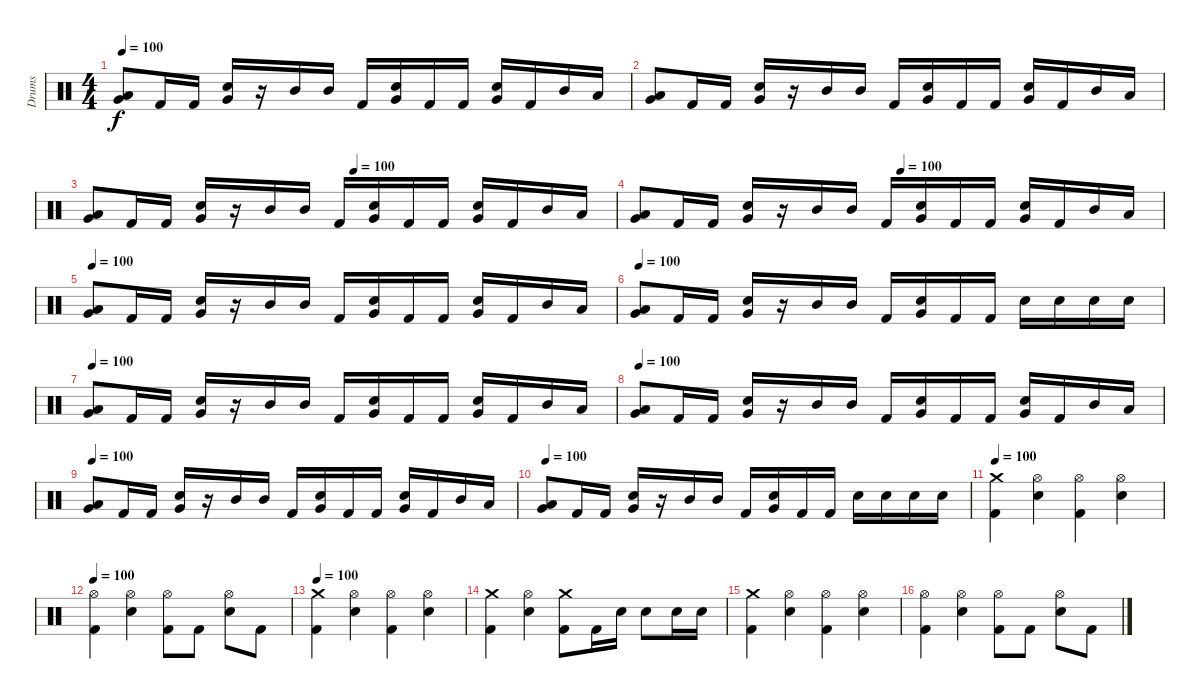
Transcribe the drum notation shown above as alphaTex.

\track ("Drums" "Drums") {instrument percussion}
\staff {score}
\articulation defaults
\ts (4 4)
\tempo 100
\clef neutral
\ks c
("Very Low Tom (hit)" "Low Tom (hit)").8{dy f} "Kick (hit) 2".16 "Kick (hit) 2".16 ("Very Low Tom (hit)" "Electric Snare (hit)").16 r.16 "Mid Tom (hit)".16 "Mid Tom (hit)".16 "Kick (hit) 2".16 ("Electric Snare (hit)" "Very Low Tom (hit)").16 "Kick (hit) 2".16 "Kick (hit) 2".16 ("Electric Snare (hit)" "Very Low Tom (hit)").16 "Kick (hit) 2".16 "Mid Tom (hit)".16 "Low Tom (hit)".16 |
("Very Low Tom (hit)" "Low Tom (hit)").8 "Kick (hit) 2".16 "Kick (hit) 2".16 ("Very Low Tom (hit)" "Electric Snare (hit)").16 r.16 "Mid Tom (hit)".16 "Mid Tom (hit)".16 "Kick (hit) 2".16 ("Electric Snare (hit)" "Very Low Tom (hit)").16 "Kick (hit) 2".16 "Kick (hit) 2".16 ("Electric Snare (hit)" "Very Low Tom (hit)").16 "Kick (hit) 2".16 "Mid Tom (hit)".16 "Low Tom (hit)".16 |
\tempo (100 0.5)
("Very Low Tom (hit)" "Low Tom (hit)").8 "Kick (hit) 2".16 "Kick (hit) 2".16 ("Very Low Tom (hit)" "Electric Snare (hit)").16 r.16 "Mid Tom (hit)".16 "Mid Tom (hit)".16 "Kick (hit) 2".16 ("Electric Snare (hit)" "Very Low Tom (hit)").16 "Kick (hit) 2".16 "Kick (hit) 2".16 ("Electric Snare (hit)" "Very Low Tom (hit)").16 "Kick (hit) 2".16 "Mid Tom (hit)".16 "Low Tom (hit)".16 |
\tempo (100 0.5)
("Very Low Tom (hit)" "Low Tom (hit)").8 "Kick (hit) 2".16 "Kick (hit) 2".16 ("Very Low Tom (hit)" "Electric Snare (hit)").16 r.16 "Mid Tom (hit)".16 "Mid Tom (hit)".16 "Kick (hit) 2".16 ("Electric Snare (hit)" "Very Low Tom (hit)").16 "Kick (hit) 2".16 "Kick (hit) 2".16 ("Electric Snare (hit)" "Very Low Tom (hit)").16 "Kick (hit) 2".16 "Mid Tom (hit)".16 "Low Tom (hit)".16 |
\tempo 100
("Very Low Tom (hit)" "Low Tom (hit)").8 "Kick (hit) 2".16 "Kick (hit) 2".16 ("Very Low Tom (hit)" "Electric Snare (hit)").16 r.16 "Mid Tom (hit)".16 "Mid Tom (hit)".16 "Kick (hit) 2".16 ("Electric Snare (hit)" "Very Low Tom (hit)").16 "Kick (hit) 2".16 "Kick (hit) 2".16 ("Electric Snare (hit)" "Very Low Tom (hit)").16 "Kick (hit) 2".16 "Mid Tom (hit)".16 "Low Tom (hit)".16 |
\tempo 100
("Very Low Tom (hit)" "Low Tom (hit)").8 "Kick (hit) 2".16 "Kick (hit) 2".16 ("Very Low Tom (hit)" "Electric Snare (hit)").16 r.16 "Mid Tom (hit)".16 "Mid Tom (hit)".16 "Kick (hit) 2".16 ("Electric Snare (hit)" "Very Low Tom (hit)").16 "Kick (hit) 2".16 "Kick (hit) 2".16 "Electric Snare (hit)".16 "Electric Snare (hit)".16 "Electric Snare (hit)".16 "Electric Snare (hit)".16 |
\tempo 100
("Very Low Tom (hit)" "Low Tom (hit)").8 "Kick (hit) 2".16 "Kick (hit) 2".16 ("Very Low Tom (hit)" "Electric Snare (hit)").16 r.16 "Mid Tom (hit)".16 "Mid Tom (hit)".16 "Kick (hit) 2".16 ("Electric Snare (hit)" "Very Low Tom (hit)").16 "Kick (hit) 2".16 "Kick (hit) 2".16 ("Electric Snare (hit)" "Very Low Tom (hit)").16 "Kick (hit) 2".16 "Mid Tom (hit)".16 "Low Tom (hit)".16 |
\tempo 100
("Very Low Tom (hit)" "Low Tom (hit)").8 "Kick (hit) 2".16 "Kick (hit) 2".16 ("Very Low Tom (hit)" "Electric Snare (hit)").16 r.16 "Mid Tom (hit)".16 "Mid Tom (hit)".16 "Kick (hit) 2".16 ("Electric Snare (hit)" "Very Low Tom (hit)").16 "Kick (hit) 2".16 "Kick (hit) 2".16 ("Electric Snare (hit)" "Very Low Tom (hit)").16 "Kick (hit) 2".16 "Mid Tom (hit)".16 "Low Tom (hit)".16 |
\tempo 100
("Very Low Tom (hit)" "Low Tom (hit)").8 "Kick (hit) 2".16 "Kick (hit) 2".16 ("Very Low Tom (hit)" "Electric Snare (hit)").16 r.16 "Mid Tom (hit)".16 "Mid Tom (hit)".16 "Kick (hit) 2".16 ("Electric Snare (hit)" "Very Low Tom (hit)").16 "Kick (hit) 2".16 "Kick (hit) 2".16 ("Electric Snare (hit)" "Very Low Tom (hit)").16 "Kick (hit) 2".16 "Mid Tom (hit)".16 "Low Tom (hit)".16 |
\tempo 100
("Very Low Tom (hit)" "Low Tom (hit)").8 "Kick (hit) 2".16 "Kick (hit) 2".16 ("Very Low Tom (hit)" "Electric Snare (hit)").16 r.16 "Mid Tom (hit)".16 "Mid Tom (hit)".16 "Kick (hit) 2".16 ("Electric Snare (hit)" "Very Low Tom (hit)").16 "Kick (hit) 2".16 "Kick (hit) 2".16 "Electric Snare (hit)".16 "Electric Snare (hit)".16 "Electric Snare (hit)".16 "Electric Snare (hit)".16 |
\tempo 100
("Kick (hit) 2" "Crash medium (hit)").4 ("Electric Snare (hit)" "Hi-Hat (open)").4 ("Kick (hit) 2" "Hi-Hat (open)").4 ("Electric Snare (hit)" "Hi-Hat (open)").4 |
\tempo 100
("Kick (hit) 2" "Hi-Hat (open)").4 ("Electric Snare (hit)" "Hi-Hat (open)").4 ("Kick (hit) 2" "Hi-Hat (open)").8 "Kick (hit) 2".8 ("Electric Snare (hit)" "Hi-Hat (open)").8 "Kick (hit) 2".8 |
\tempo 100
("Kick (hit) 2" "Crash medium (hit)").4 ("Electric Snare (hit)" "Hi-Hat (open)").4 ("Kick (hit) 2" "Hi-Hat (open)").4 ("Electric Snare (hit)" "Hi-Hat (open)").4 |
("Kick (hit) 2" "Crash medium (hit)").4 ("Electric Snare (hit)" "Hi-Hat (open)").4 ("Kick (hit) 2" "Crash medium (hit)").8 "Kick (hit) 2".16 "Electric Snare (hit)".16 "Electric Snare (hit)".8 "Electric Snare (hit)".16 "Electric Snare (hit)".16 |
("Kick (hit) 2" "Crash medium (hit)").4 ("Electric Snare (hit)" "Hi-Hat (open)").4 ("Kick (hit) 2" "Hi-Hat (open)").4 ("Electric Snare (hit)" "Hi-Hat (open)").4 |
("Kick (hit) 2" "Hi-Hat (open)").4 ("Electric Snare (hit)" "Hi-Hat (open)").4 ("Kick (hit) 2" "Hi-Hat (open)").8 "Kick (hit) 2".8 ("Electric Snare (hit)" "Hi-Hat (open)").8 "Kick (hit) 2".8
